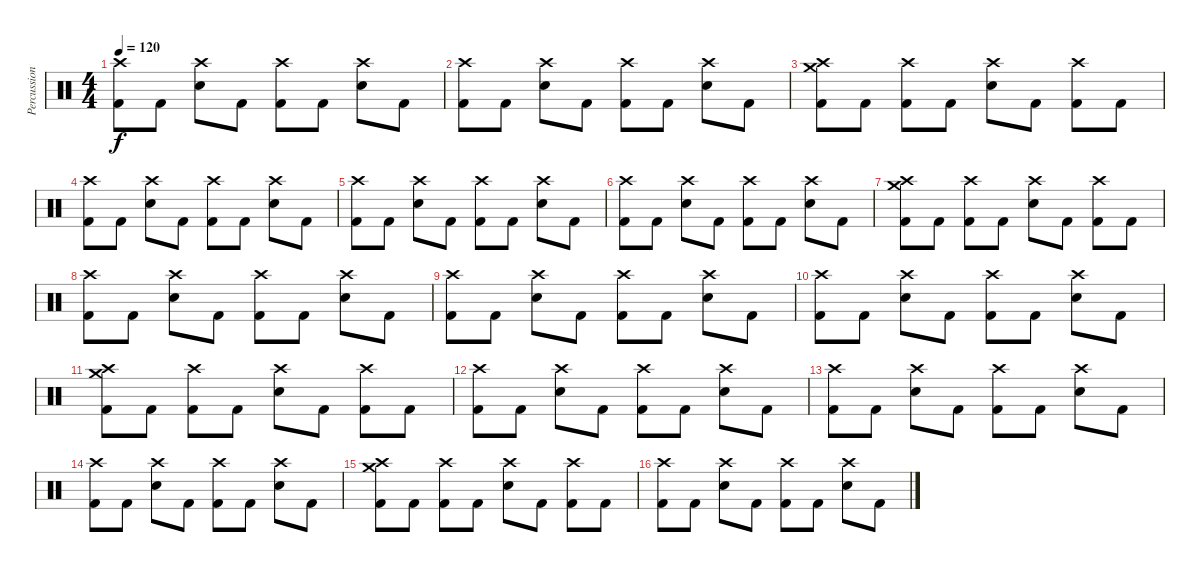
\track ("Percussion" "Percussion") {instrument percussion}
\staff {score}
\articulation defaults
\ts (4 4)
\tempo 120
\clef neutral
\ks c
("Crash high (hit)" "Kick (hit) 2").8{dy f} "Kick (hit) 2".8 ("Crash high (hit)" "Electric Snare (hit)").8 "Kick (hit) 2".8 ("Crash high (hit)" "Kick (hit) 2").8 "Kick (hit) 2".8 ("Crash high (hit)" "Electric Snare (hit)").8 "Kick (hit) 2".8 |
("Crash high (hit)" "Kick (hit) 2").8 "Kick (hit) 2".8 ("Crash high (hit)" "Electric Snare (hit)").8 "Kick (hit) 2".8 ("Crash high (hit)" "Kick (hit) 2").8 "Kick (hit) 2".8 ("Crash high (hit)" "Electric Snare (hit)").8 "Kick (hit) 2".8 |
("Crash high (hit)" "Crash medium (hit)" "Kick (hit) 2").8 "Kick (hit) 2".8 ("Crash high (hit)" "Kick (hit) 2").8 "Kick (hit) 2".8 ("Crash high (hit)" "Electric Snare (hit)").8 "Kick (hit) 2".8 ("Crash high (hit)" "Kick (hit) 2").8 "Kick (hit) 2".8 |
("Crash high (hit)" "Kick (hit) 2").8 "Kick (hit) 2".8 ("Crash high (hit)" "Electric Snare (hit)").8 "Kick (hit) 2".8 ("Crash high (hit)" "Kick (hit) 2").8 "Kick (hit) 2".8 ("Crash high (hit)" "Electric Snare (hit)").8 "Kick (hit) 2".8 |
("Crash high (hit)" "Kick (hit) 2").8 "Kick (hit) 2".8 ("Crash high (hit)" "Electric Snare (hit)").8 "Kick (hit) 2".8 ("Crash high (hit)" "Kick (hit) 2").8 "Kick (hit) 2".8 ("Crash high (hit)" "Electric Snare (hit)").8 "Kick (hit) 2".8 |
("Crash high (hit)" "Kick (hit) 2").8 "Kick (hit) 2".8 ("Crash high (hit)" "Electric Snare (hit)").8 "Kick (hit) 2".8 ("Crash high (hit)" "Kick (hit) 2").8 "Kick (hit) 2".8 ("Crash high (hit)" "Electric Snare (hit)").8 "Kick (hit) 2".8 |
("Crash high (hit)" "Crash medium (hit)" "Kick (hit) 2").8 "Kick (hit) 2".8 ("Crash high (hit)" "Kick (hit) 2").8 "Kick (hit) 2".8 ("Crash high (hit)" "Electric Snare (hit)").8 "Kick (hit) 2".8 ("Crash high (hit)" "Kick (hit) 2").8 "Kick (hit) 2".8 |
("Crash high (hit)" "Kick (hit) 2").8 "Kick (hit) 2".8 ("Crash high (hit)" "Electric Snare (hit)").8 "Kick (hit) 2".8 ("Crash high (hit)" "Kick (hit) 2").8 "Kick (hit) 2".8 ("Crash high (hit)" "Electric Snare (hit)").8 "Kick (hit) 2".8 |
("Crash high (hit)" "Kick (hit) 2").8 "Kick (hit) 2".8 ("Crash high (hit)" "Electric Snare (hit)").8 "Kick (hit) 2".8 ("Crash high (hit)" "Kick (hit) 2").8 "Kick (hit) 2".8 ("Crash high (hit)" "Electric Snare (hit)").8 "Kick (hit) 2".8 |
("Crash high (hit)" "Kick (hit) 2").8 "Kick (hit) 2".8 ("Crash high (hit)" "Electric Snare (hit)").8 "Kick (hit) 2".8 ("Crash high (hit)" "Kick (hit) 2").8 "Kick (hit) 2".8 ("Crash high (hit)" "Electric Snare (hit)").8 "Kick (hit) 2".8 |
("Crash high (hit)" "Crash medium (hit)" "Kick (hit) 2").8 "Kick (hit) 2".8 ("Crash high (hit)" "Kick (hit) 2").8 "Kick (hit) 2".8 ("Crash high (hit)" "Electric Snare (hit)").8 "Kick (hit) 2".8 ("Crash high (hit)" "Kick (hit) 2").8 "Kick (hit) 2".8 |
("Crash high (hit)" "Kick (hit) 2").8 "Kick (hit) 2".8 ("Crash high (hit)" "Electric Snare (hit)").8 "Kick (hit) 2".8 ("Crash high (hit)" "Kick (hit) 2").8 "Kick (hit) 2".8 ("Crash high (hit)" "Electric Snare (hit)").8 "Kick (hit) 2".8 |
("Crash high (hit)" "Kick (hit) 2").8 "Kick (hit) 2".8 ("Crash high (hit)" "Electric Snare (hit)").8 "Kick (hit) 2".8 ("Crash high (hit)" "Kick (hit) 2").8 "Kick (hit) 2".8 ("Crash high (hit)" "Electric Snare (hit)").8 "Kick (hit) 2".8 |
("Crash high (hit)" "Kick (hit) 2").8 "Kick (hit) 2".8 ("Crash high (hit)" "Electric Snare (hit)").8 "Kick (hit) 2".8 ("Crash high (hit)" "Kick (hit) 2").8 "Kick (hit) 2".8 ("Crash high (hit)" "Electric Snare (hit)").8 "Kick (hit) 2".8 |
("Crash high (hit)" "Crash medium (hit)" "Kick (hit) 2").8 "Kick (hit) 2".8 ("Crash high (hit)" "Kick (hit) 2").8 "Kick (hit) 2".8 ("Crash high (hit)" "Electric Snare (hit)").8 "Kick (hit) 2".8 ("Crash high (hit)" "Kick (hit) 2").8 "Kick (hit) 2".8 |
("Crash high (hit)" "Kick (hit) 2").8 "Kick (hit) 2".8 ("Crash high (hit)" "Electric Snare (hit)").8 "Kick (hit) 2".8 ("Crash high (hit)" "Kick (hit) 2").8 "Kick (hit) 2".8 ("Crash high (hit)" "Electric Snare (hit)").8 "Kick (hit) 2".8
